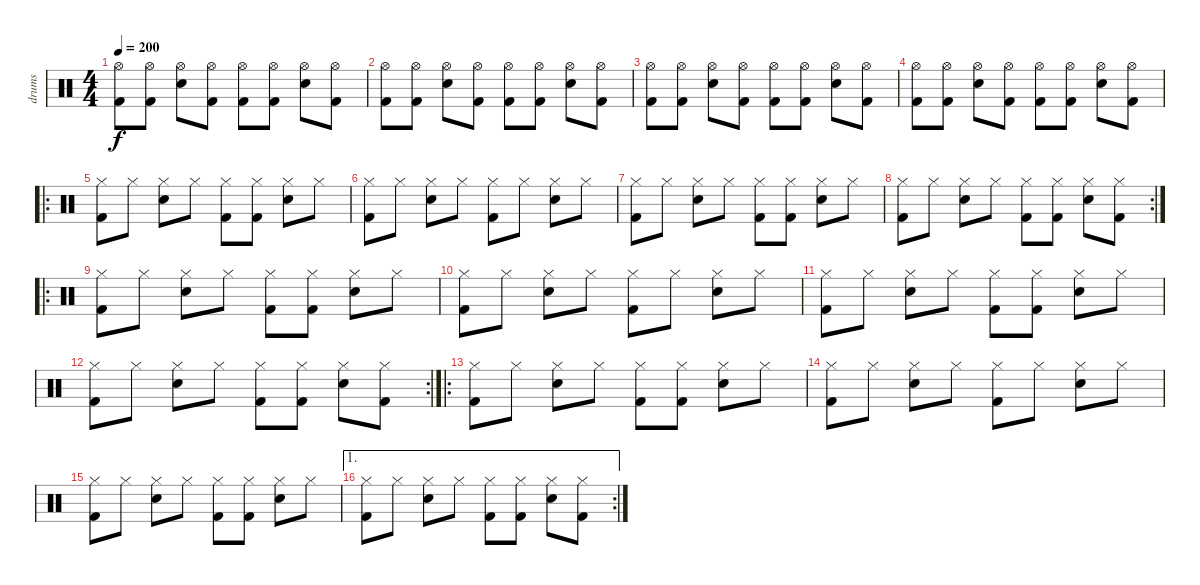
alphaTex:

\track ("drums" "drums") {instrument percussion}
\staff {score}
\articulation defaults
\ts (4 4)
\tempo 200
\clef neutral
\ks c
("Hi-Hat (open)" "Kick (hit) 2").8{dy f} ("Hi-Hat (open)" "Kick (hit) 2").8 ("Hi-Hat (open)" "Electric Snare (hit)").8 ("Hi-Hat (open)" "Kick (hit) 2").8 ("Hi-Hat (open)" "Kick (hit) 2").8 ("Hi-Hat (open)" "Kick (hit) 2").8 ("Hi-Hat (open)" "Electric Snare (hit)").8 ("Hi-Hat (open)" "Kick (hit) 2").8 |
("Hi-Hat (open)" "Kick (hit) 2").8 ("Hi-Hat (open)" "Kick (hit) 2").8 ("Hi-Hat (open)" "Electric Snare (hit)").8 ("Hi-Hat (open)" "Kick (hit) 2").8 ("Hi-Hat (open)" "Kick (hit) 2").8 ("Hi-Hat (open)" "Kick (hit) 2").8 ("Hi-Hat (open)" "Electric Snare (hit)").8 ("Hi-Hat (open)" "Kick (hit) 2").8 |
("Hi-Hat (open)" "Kick (hit) 2").8 ("Hi-Hat (open)" "Kick (hit) 2").8 ("Hi-Hat (open)" "Electric Snare (hit)").8 ("Hi-Hat (open)" "Kick (hit) 2").8 ("Hi-Hat (open)" "Kick (hit) 2").8 ("Hi-Hat (open)" "Kick (hit) 2").8 ("Hi-Hat (open)" "Electric Snare (hit)").8 ("Hi-Hat (open)" "Kick (hit) 2").8 |
("Hi-Hat (open)" "Kick (hit) 2").8 ("Hi-Hat (open)" "Kick (hit) 2").8 ("Hi-Hat (open)" "Electric Snare (hit)").8 ("Hi-Hat (open)" "Kick (hit) 2").8 ("Hi-Hat (open)" "Kick (hit) 2").8 ("Hi-Hat (open)" "Kick (hit) 2").8 ("Hi-Hat (open)" "Electric Snare (hit)").8 ("Hi-Hat (open)" "Kick (hit) 2").8 |
\ro
("Kick (hit) 2" "Hi-Hat (closed)").8 "Hi-Hat (closed)".8 ("Electric Snare (hit)" "Hi-Hat (closed)").8 "Hi-Hat (closed)".8 ("Kick (hit) 2" "Hi-Hat (closed)").8 ("Kick (hit) 2" "Hi-Hat (closed)").8 ("Electric Snare (hit)" "Hi-Hat (closed)").8 "Hi-Hat (closed)".8 |
("Kick (hit) 2" "Hi-Hat (closed)").8 "Hi-Hat (closed)".8 ("Electric Snare (hit)" "Hi-Hat (closed)").8 "Hi-Hat (closed)".8 ("Kick (hit) 2" "Hi-Hat (closed)").8 "Hi-Hat (closed)".8 ("Electric Snare (hit)" "Hi-Hat (closed)").8 "Hi-Hat (closed)".8 |
("Kick (hit) 2" "Hi-Hat (closed)").8 "Hi-Hat (closed)".8 ("Electric Snare (hit)" "Hi-Hat (closed)").8 "Hi-Hat (closed)".8 ("Kick (hit) 2" "Hi-Hat (closed)").8 ("Kick (hit) 2" "Hi-Hat (closed)").8 ("Electric Snare (hit)" "Hi-Hat (closed)").8 "Hi-Hat (closed)".8 |
\rc 2
("Kick (hit) 2" "Hi-Hat (closed)").8 "Hi-Hat (closed)".8 ("Electric Snare (hit)" "Hi-Hat (closed)").8 "Hi-Hat (closed)".8 ("Kick (hit) 2" "Hi-Hat (closed)").8 ("Kick (hit) 2" "Hi-Hat (closed)").8 ("Electric Snare (hit)" "Hi-Hat (closed)").8 ("Kick (hit) 2" "Hi-Hat (closed)").8 |
\ro
("Kick (hit) 2" "Hi-Hat (closed)").8 "Hi-Hat (closed)".8 ("Electric Snare (hit)" "Hi-Hat (closed)").8 "Hi-Hat (closed)".8 ("Kick (hit) 2" "Hi-Hat (closed)").8 ("Kick (hit) 2" "Hi-Hat (closed)").8 ("Electric Snare (hit)" "Hi-Hat (closed)").8 "Hi-Hat (closed)".8 |
("Kick (hit) 2" "Hi-Hat (closed)").8 "Hi-Hat (closed)".8 ("Electric Snare (hit)" "Hi-Hat (closed)").8 "Hi-Hat (closed)".8 ("Kick (hit) 2" "Hi-Hat (closed)").8 "Hi-Hat (closed)".8 ("Electric Snare (hit)" "Hi-Hat (closed)").8 "Hi-Hat (closed)".8 |
("Kick (hit) 2" "Hi-Hat (closed)").8 "Hi-Hat (closed)".8 ("Electric Snare (hit)" "Hi-Hat (closed)").8 "Hi-Hat (closed)".8 ("Kick (hit) 2" "Hi-Hat (closed)").8 ("Kick (hit) 2" "Hi-Hat (closed)").8 ("Electric Snare (hit)" "Hi-Hat (closed)").8 "Hi-Hat (closed)".8 |
\rc 2
("Kick (hit) 2" "Hi-Hat (closed)").8 "Hi-Hat (closed)".8 ("Electric Snare (hit)" "Hi-Hat (closed)").8 "Hi-Hat (closed)".8 ("Kick (hit) 2" "Hi-Hat (closed)").8 ("Kick (hit) 2" "Hi-Hat (closed)").8 ("Electric Snare (hit)" "Hi-Hat (closed)").8 ("Kick (hit) 2" "Hi-Hat (closed)").8 |
\ro
("Kick (hit) 2" "Hi-Hat (closed)").8 "Hi-Hat (closed)".8 ("Electric Snare (hit)" "Hi-Hat (closed)").8 "Hi-Hat (closed)".8 ("Kick (hit) 2" "Hi-Hat (closed)").8 ("Kick (hit) 2" "Hi-Hat (closed)").8 ("Electric Snare (hit)" "Hi-Hat (closed)").8 "Hi-Hat (closed)".8 |
("Kick (hit) 2" "Hi-Hat (closed)").8 "Hi-Hat (closed)".8 ("Electric Snare (hit)" "Hi-Hat (closed)").8 "Hi-Hat (closed)".8 ("Kick (hit) 2" "Hi-Hat (closed)").8 "Hi-Hat (closed)".8 ("Electric Snare (hit)" "Hi-Hat (closed)").8 "Hi-Hat (closed)".8 |
("Kick (hit) 2" "Hi-Hat (closed)").8 "Hi-Hat (closed)".8 ("Electric Snare (hit)" "Hi-Hat (closed)").8 "Hi-Hat (closed)".8 ("Kick (hit) 2" "Hi-Hat (closed)").8 ("Kick (hit) 2" "Hi-Hat (closed)").8 ("Electric Snare (hit)" "Hi-Hat (closed)").8 "Hi-Hat (closed)".8 |
\ae 1
\rc 2
("Kick (hit) 2" "Hi-Hat (closed)").8 "Hi-Hat (closed)".8 ("Electric Snare (hit)" "Hi-Hat (closed)").8 "Hi-Hat (closed)".8 ("Kick (hit) 2" "Hi-Hat (closed)").8 ("Kick (hit) 2" "Hi-Hat (closed)").8 ("Electric Snare (hit)" "Hi-Hat (closed)").8 ("Kick (hit) 2" "Hi-Hat (closed)").8
